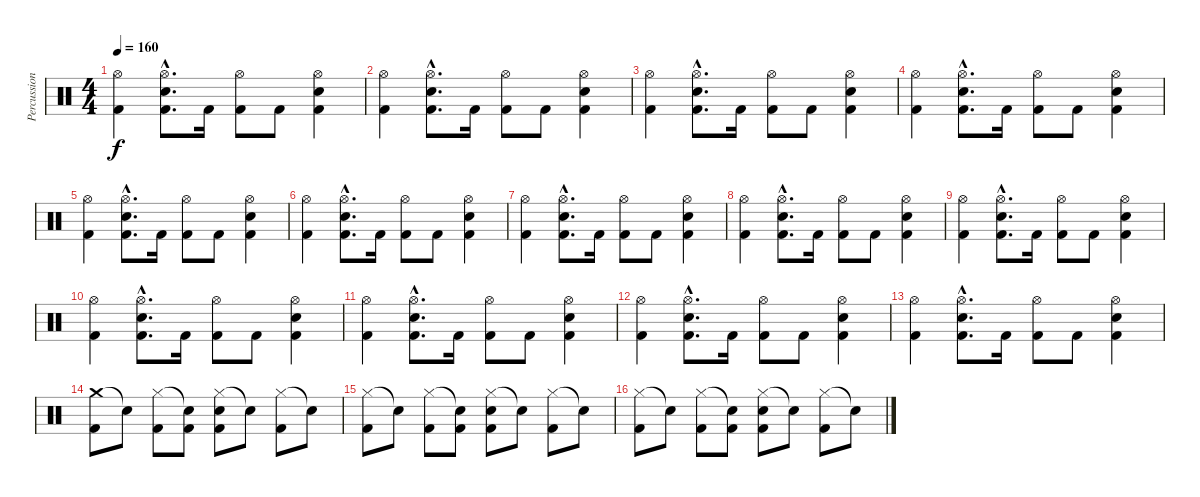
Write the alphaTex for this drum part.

\track ("Percussion" "Percussion") {instrument percussion}
\staff {score}
\articulation defaults
\ts (4 4)
\tempo 160
\clef neutral
\ks c
("Hi-Hat (open)" "Kick (hit) 2").4{dy f} ("Hi-Hat (open)"{hac} "Electric Snare (hit)"{hac} "Kick (hit) 2"{hac}).8{d} "Kick (hit) 2".16 ("Hi-Hat (open)" "Kick (hit) 2").8 "Kick (hit) 2".8 ("Hi-Hat (open)" "Electric Snare (hit)" "Kick (hit) 2").4 |
("Hi-Hat (open)" "Kick (hit) 2").4 ("Hi-Hat (open)"{hac} "Electric Snare (hit)"{hac} "Kick (hit) 2"{hac}).8{d} "Kick (hit) 2".16 ("Hi-Hat (open)" "Kick (hit) 2").8 "Kick (hit) 2".8 ("Hi-Hat (open)" "Electric Snare (hit)" "Kick (hit) 2").4 |
("Hi-Hat (open)" "Kick (hit) 2").4 ("Hi-Hat (open)"{hac} "Electric Snare (hit)"{hac} "Kick (hit) 2"{hac}).8{d} "Kick (hit) 2".16 ("Hi-Hat (open)" "Kick (hit) 2").8 "Kick (hit) 2".8 ("Hi-Hat (open)" "Electric Snare (hit)" "Kick (hit) 2").4 |
("Hi-Hat (open)" "Kick (hit) 2").4 ("Hi-Hat (open)"{hac} "Electric Snare (hit)"{hac} "Kick (hit) 2"{hac}).8{d} "Kick (hit) 2".16 ("Hi-Hat (open)" "Kick (hit) 2").8 "Kick (hit) 2".8 ("Hi-Hat (open)" "Electric Snare (hit)" "Kick (hit) 2").4 |
("Hi-Hat (open)" "Kick (hit) 2").4 ("Hi-Hat (open)"{hac} "Electric Snare (hit)"{hac} "Kick (hit) 2"{hac}).8{d} "Kick (hit) 2".16 ("Hi-Hat (open)" "Kick (hit) 2").8 "Kick (hit) 2".8 ("Hi-Hat (open)" "Electric Snare (hit)" "Kick (hit) 2").4 |
("Hi-Hat (open)" "Kick (hit) 2").4 ("Hi-Hat (open)"{hac} "Electric Snare (hit)"{hac} "Kick (hit) 2"{hac}).8{d} "Kick (hit) 2".16 ("Hi-Hat (open)" "Kick (hit) 2").8 "Kick (hit) 2".8 ("Hi-Hat (open)" "Electric Snare (hit)" "Kick (hit) 2").4 |
("Hi-Hat (open)" "Kick (hit) 2").4 ("Hi-Hat (open)"{hac} "Electric Snare (hit)"{hac} "Kick (hit) 2"{hac}).8{d} "Kick (hit) 2".16 ("Hi-Hat (open)" "Kick (hit) 2").8 "Kick (hit) 2".8 ("Hi-Hat (open)" "Electric Snare (hit)" "Kick (hit) 2").4 |
("Hi-Hat (open)" "Kick (hit) 2").4 ("Hi-Hat (open)"{hac} "Electric Snare (hit)"{hac} "Kick (hit) 2"{hac}).8{d} "Kick (hit) 2".16 ("Hi-Hat (open)" "Kick (hit) 2").8 "Kick (hit) 2".8 ("Hi-Hat (open)" "Electric Snare (hit)" "Kick (hit) 2").4 |
("Hi-Hat (open)" "Kick (hit) 2").4 ("Hi-Hat (open)"{hac} "Electric Snare (hit)"{hac} "Kick (hit) 2"{hac}).8{d} "Kick (hit) 2".16 ("Hi-Hat (open)" "Kick (hit) 2").8 "Kick (hit) 2".8 ("Hi-Hat (open)" "Electric Snare (hit)" "Kick (hit) 2").4 |
("Hi-Hat (open)" "Kick (hit) 2").4 ("Hi-Hat (open)"{hac} "Electric Snare (hit)"{hac} "Kick (hit) 2"{hac}).8{d} "Kick (hit) 2".16 ("Hi-Hat (open)" "Kick (hit) 2").8 "Kick (hit) 2".8 ("Hi-Hat (open)" "Electric Snare (hit)" "Kick (hit) 2").4 |
("Hi-Hat (open)" "Kick (hit) 2").4 ("Hi-Hat (open)"{hac} "Electric Snare (hit)"{hac} "Kick (hit) 2"{hac}).8{d} "Kick (hit) 2".16 ("Hi-Hat (open)" "Kick (hit) 2").8 "Kick (hit) 2".8 ("Hi-Hat (open)" "Electric Snare (hit)" "Kick (hit) 2").4 |
("Hi-Hat (open)" "Kick (hit) 2").4 ("Hi-Hat (open)"{hac} "Electric Snare (hit)"{hac} "Kick (hit) 2"{hac}).8{d} "Kick (hit) 2".16 ("Hi-Hat (open)" "Kick (hit) 2").8 "Kick (hit) 2".8 ("Hi-Hat (open)" "Electric Snare (hit)" "Kick (hit) 2").4 |
("Hi-Hat (open)" "Kick (hit) 2").4 ("Hi-Hat (open)"{hac} "Electric Snare (hit)"{hac} "Kick (hit) 2"{hac}).8{d} "Kick (hit) 2".16 ("Hi-Hat (open)" "Kick (hit) 2").8 "Kick (hit) 2".8 ("Hi-Hat (open)" "Electric Snare (hit)" "Kick (hit) 2").4 |
("Crash medium (hit)" "Kick (hit) 2").8 "Snare (hit)"{t}.8 ("Hi-Hat (closed)" "Kick (hit) 2").8 ("Snare (hit)"{t} "Kick (hit) 2").8 ("Hi-Hat (closed)" "Electric Snare (hit)" "Kick (hit) 2").8 "Snare (hit)"{t}.8 ("Hi-Hat (closed)" "Kick (hit) 2").8 "Snare (hit)"{t}.8 |
("Hi-Hat (closed)" "Kick (hit) 2").8 "Snare (hit)"{t}.8 ("Hi-Hat (closed)" "Kick (hit) 2").8 ("Snare (hit)"{t} "Kick (hit) 2").8 ("Hi-Hat (closed)" "Electric Snare (hit)" "Kick (hit) 2").8 "Snare (hit)"{t}.8 ("Hi-Hat (closed)" "Kick (hit) 2").8 "Snare (hit)"{t}.8 |
("Hi-Hat (closed)" "Kick (hit) 2").8 "Snare (hit)"{t}.8 ("Hi-Hat (closed)" "Kick (hit) 2").8 ("Snare (hit)"{t} "Kick (hit) 2").8 ("Hi-Hat (closed)" "Electric Snare (hit)" "Kick (hit) 2").8 "Snare (hit)"{t}.8 ("Hi-Hat (closed)" "Kick (hit) 2").8 "Snare (hit)"{t}.8
